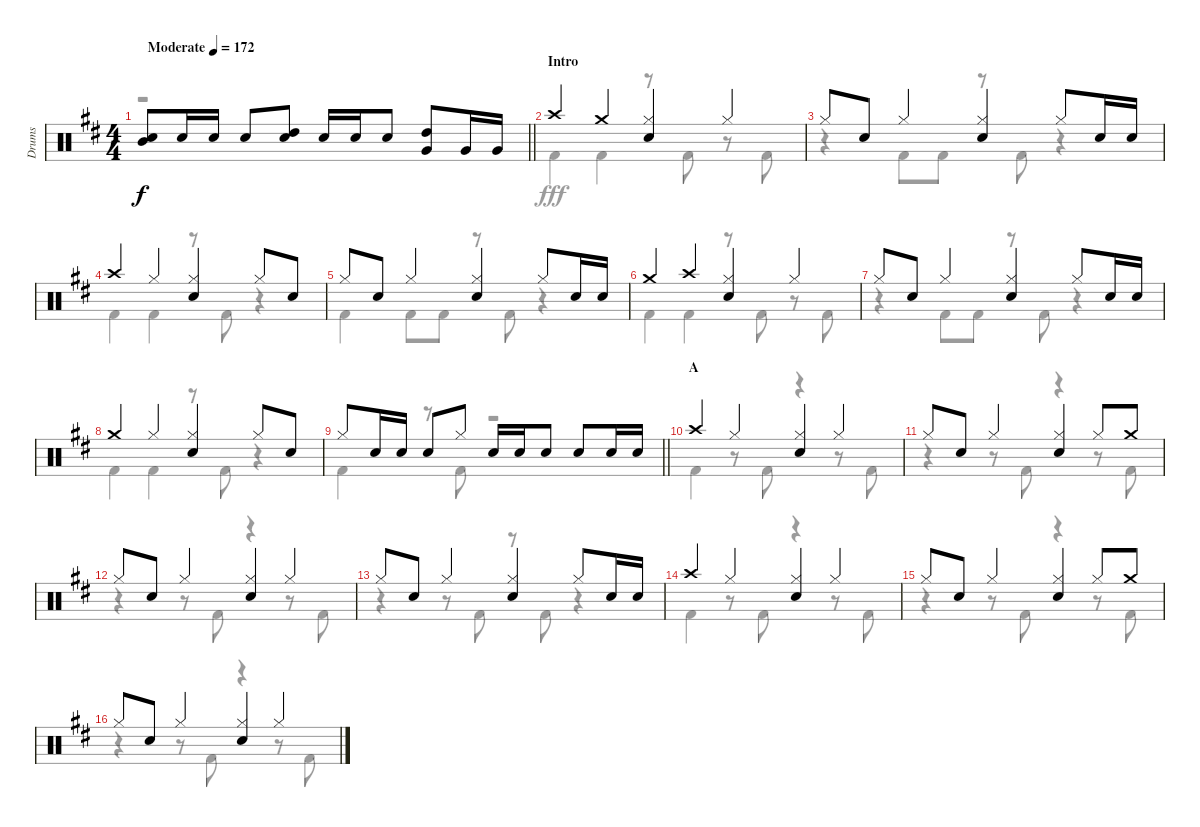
\track ("Drums" "Drums") {instrument percussion}
\staff {score}
\articulation defaults
\voice
\ts (4 4)
\tempo (172 "Moderate")
\clef neutral
\barLineRight lightlight
\ks d
("Mid Tom (hit)" "Snare (hit) 2").8{dy f} "Snare (hit) 2".16 "Snare (hit) 2".16 "Snare (hit) 2".8 ("High Tom (hit)" "Snare (hit) 2").8 "Snare (hit) 2".16 "Snare (hit) 2".16 "Snare (hit) 2".8 ("High Tom (hit)" "Very Low Tom (hit)").8 "Very Low Tom (hit)".16 "Very Low Tom (hit)".16 |
\section ("" "Intro")
"Crash high (hit)".4 "Crash medium (hit)".4 ("Hi-Hat (closed)" "Snare (hit) 2").4 "Hi-Hat (closed)".4 |
"Hi-Hat (closed)".8 "Snare (hit) 2".8 "Hi-Hat (closed)".4 ("Hi-Hat (closed)" "Snare (hit) 2").4 "Hi-Hat (closed)".8 "Snare (hit) 2".16 "Snare (hit) 2".16 |
"Crash high (hit)".4 "Hi-Hat (closed)".4 ("Hi-Hat (closed)" "Snare (hit) 2").4 "Hi-Hat (closed)".8 "Snare (hit) 2".8 |
"Hi-Hat (closed)".8 "Snare (hit) 2".8 "Hi-Hat (closed)".4 ("Hi-Hat (closed)" "Snare (hit) 2").4 "Hi-Hat (closed)".8 "Snare (hit) 2".16 "Snare (hit) 2".16 |
"Crash medium (hit)".4 "Crash high (hit)".4 ("Hi-Hat (closed)" "Snare (hit) 2").4 "Hi-Hat (closed)".4 |
"Hi-Hat (closed)".8 "Snare (hit) 2".8 "Hi-Hat (closed)".4 ("Hi-Hat (closed)" "Snare (hit) 2").4 "Hi-Hat (closed)".8 "Snare (hit) 2".16 "Snare (hit) 2".16 |
"Crash medium (hit)".4 "Hi-Hat (closed)".4 ("Hi-Hat (closed)" "Snare (hit) 2").4 "Hi-Hat (closed)".8 "Snare (hit) 2".8 |
\barLineRight lightlight "Hi-Hat (closed)".8 "Snare (hit) 2".16 "Snare (hit) 2".16 "Snare (hit) 2".8 "Hi-Hat (closed)".8 "Snare (hit) 2".16 "Snare (hit) 2".16 "Snare (hit) 2".8 "Snare (hit) 2".8 "Snare (hit) 2".16 "Snare (hit) 2".16
|
\section ("" "A")
"Crash high (hit)".4 "Hi-Hat (closed)".4 ("Hi-Hat (closed)" "Snare (hit) 2").4 "Hi-Hat (closed)".4 |
"Hi-Hat (closed)".8 "Snare (hit) 2".8 "Hi-Hat (closed)".4 ("Hi-Hat (closed)" "Snare (hit) 2").4 "Hi-Hat (closed)".8 "Crash medium (hit)".8 |
"Hi-Hat (closed)".8 "Snare (hit) 2".8 "Hi-Hat (closed)".4 ("Hi-Hat (closed)" "Snare (hit) 2").4 "Hi-Hat (closed)".4 |
"Hi-Hat (closed)".8 "Snare (hit) 2".8 "Hi-Hat (closed)".4 ("Hi-Hat (closed)" "Snare (hit) 2").4 "Hi-Hat (closed)".8 "Snare (hit) 2".16 "Snare (hit) 2".16 |
"Crash high (hit)".4 "Hi-Hat (closed)".4 ("Hi-Hat (closed)" "Snare (hit) 2").4 "Hi-Hat (closed)".4 |
"Hi-Hat (closed)".8 "Snare (hit) 2".8 "Hi-Hat (closed)".4 ("Hi-Hat (closed)" "Snare (hit) 2").4 "Hi-Hat (closed)".8 "Crash medium (hit)".8 |
"Hi-Hat (closed)".8 "Snare (hit) 2".8 "Hi-Hat (closed)".4 ("Hi-Hat (closed)" "Snare (hit) 2").4 "Hi-Hat (closed)".4
\voice
\clef neutral
\ottava regular
\simile none
\barLineRight lightlight
\ks d
r.1{dy fff} |
"Kick (hit) 2".4 "Kick (hit) 2".4 r.8 "Kick (hit) 2".8 r.8 "Kick (hit) 2".8 |
r.4 "Kick (hit) 2".8 "Kick (hit) 2".8 r.8 "Kick (hit) 2".8 r.4 |
"Kick (hit) 2".4 "Kick (hit) 2".4 r.8 "Kick (hit) 2".8 r.4 |
"Kick (hit) 2".4 "Kick (hit) 2".8 "Kick (hit) 2".8 r.8 "Kick (hit) 2".8 r.4 |
"Kick (hit) 2".4 "Kick (hit) 2".4 r.8 "Kick (hit) 2".8 r.8 "Kick (hit) 2".8 |
r.4 "Kick (hit) 2".8 "Kick (hit) 2".8 r.8 "Kick (hit) 2".8 r.4 |
"Kick (hit) 2".4 "Kick (hit) 2".4 r.8 "Kick (hit) 2".8 r.4 |
\barLineRight lightlight "Kick (hit) 2".4
r.8 "Kick (hit) 2".8 r.2 |
"Kick (hit) 2".4 r.8 "Kick (hit) 2".8 r.4 r.8 "Kick (hit) 2".8 |
r.4 r.8 "Kick (hit) 2".8 r.4 r.8 "Kick (hit) 2".8 |
r.4 r.8 "Kick (hit) 2".8 r.4 r.8 "Kick (hit) 2".8 |
r.4 r.8 "Kick (hit) 2".8 r.8 "Kick (hit) 2".8 r.4 |
"Kick (hit) 2".4 r.8 "Kick (hit) 2".8 r.4 r.8 "Kick (hit) 2".8 |
r.4 r.8 "Kick (hit) 2".8 r.4 r.8 "Kick (hit) 2".8 |
r.4 r.8 "Kick (hit) 2".8 r.4 r.8 "Kick (hit) 2".8
